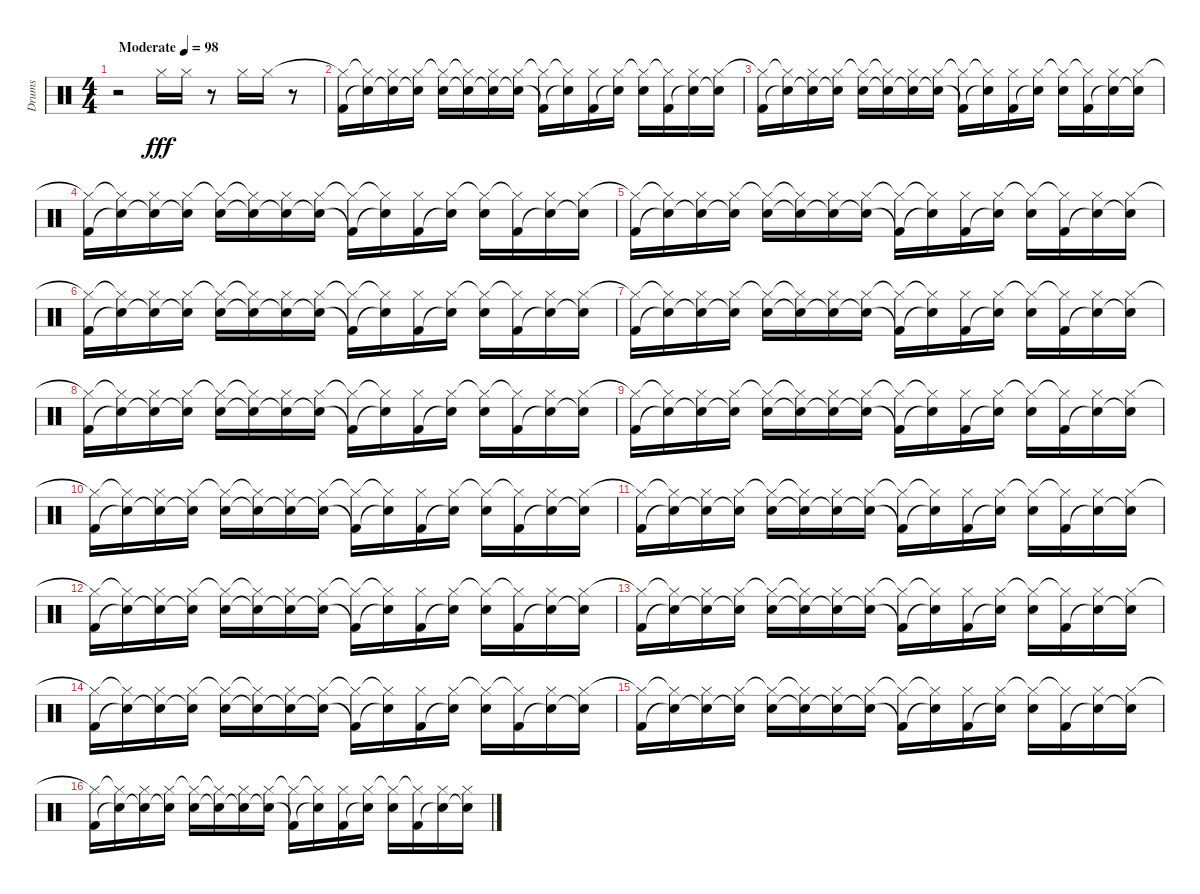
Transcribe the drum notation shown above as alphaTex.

\track ("Drums" "Drums") {instrument percussion}
\staff {score}
\articulation defaults
\ts (4 4)
\tempo (98 "Moderate")
\clef neutral
\ks c
r.2{dy fff} "Hi-Hat (closed)".16 "Hi-Hat (closed)".16 r.8 "Hi-Hat (closed)".16 "Hi-Hat (closed)".16 r.8 |
("Hi-Hat (closed)"{t} "Kick (hit) 2").16 ("Hi-Hat (closed)"{t} "Snare (hit)"{t}).16 ("Hi-Hat (closed)" "Snare (hit)"{t}).16 ("Hi-Hat (closed)" "Snare (hit)"{t}).16 ("Hi-Hat (closed)"{t} "Electric Snare (hit)").16 ("Hi-Hat (closed)"{t} "Snare (hit)"{t}).16 ("Hi-Hat (closed)" "Snare (hit)"{t}).16 ("Hi-Hat (closed)" "Snare (hit)"{t}).16 ("Hi-Hat (closed)"{t} "Kick (hit) 2"{t}).16 ("Hi-Hat (closed)"{t} "Snare (hit)"{t}).16 ("Hi-Hat (closed)" "Kick (hit) 2").16 ("Hi-Hat (closed)" "Electric Snare (hit)"{t}).16 ("Hi-Hat (closed)"{t} "Electric Snare (hit)").16 ("Hi-Hat (closed)"{t} "Kick (hit) 2").16 ("Hi-Hat (closed)" "Electric Snare (hit)"{t}).16 ("Hi-Hat (closed)" "Snare (hit)"{t}).16 |
("Hi-Hat (closed)"{t} "Kick (hit) 2").16 ("Hi-Hat (closed)"{t} "Snare (hit)"{t}).16 ("Hi-Hat (closed)" "Snare (hit)"{t}).16 ("Hi-Hat (closed)" "Snare (hit)"{t}).16 ("Hi-Hat (closed)"{t} "Electric Snare (hit)").16 ("Hi-Hat (closed)"{t} "Snare (hit)"{t}).16 ("Hi-Hat (closed)" "Snare (hit)"{t}).16 ("Hi-Hat (closed)" "Snare (hit)"{t}).16 ("Hi-Hat (closed)"{t} "Kick (hit) 2"{t}).16 ("Hi-Hat (closed)"{t} "Snare (hit)"{t}).16 ("Hi-Hat (closed)" "Kick (hit) 2").16 ("Hi-Hat (closed)" "Electric Snare (hit)"{t}).16 ("Hi-Hat (closed)"{t} "Electric Snare (hit)").16 ("Hi-Hat (closed)"{t} "Kick (hit) 2").16 ("Hi-Hat (closed)" "Electric Snare (hit)"{t}).16 ("Hi-Hat (closed)" "Snare (hit)"{t}).16 |
("Hi-Hat (closed)"{t} "Kick (hit) 2").16 ("Hi-Hat (closed)"{t} "Snare (hit)"{t}).16 ("Hi-Hat (closed)" "Snare (hit)"{t}).16 ("Hi-Hat (closed)" "Snare (hit)"{t}).16 ("Hi-Hat (closed)"{t} "Electric Snare (hit)").16 ("Hi-Hat (closed)"{t} "Snare (hit)"{t}).16 ("Hi-Hat (closed)" "Snare (hit)"{t}).16 ("Hi-Hat (closed)" "Snare (hit)"{t}).16 ("Hi-Hat (closed)"{t} "Kick (hit) 2"{t}).16 ("Hi-Hat (closed)"{t} "Snare (hit)"{t}).16 ("Hi-Hat (closed)" "Kick (hit) 2").16 ("Hi-Hat (closed)" "Electric Snare (hit)"{t}).16 ("Hi-Hat (closed)"{t} "Electric Snare (hit)").16 ("Hi-Hat (closed)"{t} "Kick (hit) 2").16 ("Hi-Hat (closed)" "Electric Snare (hit)"{t}).16 ("Hi-Hat (closed)" "Snare (hit)"{t}).16 |
("Hi-Hat (closed)"{t} "Kick (hit) 2").16 ("Hi-Hat (closed)"{t} "Snare (hit)"{t}).16 ("Hi-Hat (closed)" "Snare (hit)"{t}).16 ("Hi-Hat (closed)" "Snare (hit)"{t}).16 ("Hi-Hat (closed)"{t} "Electric Snare (hit)").16 ("Hi-Hat (closed)"{t} "Snare (hit)"{t}).16 ("Hi-Hat (closed)" "Snare (hit)"{t}).16 ("Hi-Hat (closed)" "Snare (hit)"{t}).16 ("Hi-Hat (closed)"{t} "Kick (hit) 2"{t}).16 ("Hi-Hat (closed)"{t} "Snare (hit)"{t}).16 ("Hi-Hat (closed)" "Kick (hit) 2").16 ("Hi-Hat (closed)" "Electric Snare (hit)"{t}).16 ("Hi-Hat (closed)"{t} "Electric Snare (hit)").16 ("Hi-Hat (closed)"{t} "Kick (hit) 2").16 ("Hi-Hat (closed)" "Electric Snare (hit)"{t}).16 ("Hi-Hat (closed)" "Snare (hit)"{t}).16 |
("Hi-Hat (closed)"{t} "Kick (hit) 2").16 ("Hi-Hat (closed)"{t} "Snare (hit)"{t}).16 ("Hi-Hat (closed)" "Snare (hit)"{t}).16 ("Hi-Hat (closed)" "Snare (hit)"{t}).16 ("Hi-Hat (closed)"{t} "Electric Snare (hit)").16 ("Hi-Hat (closed)"{t} "Snare (hit)"{t}).16 ("Hi-Hat (closed)" "Snare (hit)"{t}).16 ("Hi-Hat (closed)" "Snare (hit)"{t}).16 ("Hi-Hat (closed)"{t} "Kick (hit) 2"{t}).16 ("Hi-Hat (closed)"{t} "Snare (hit)"{t}).16 ("Hi-Hat (closed)" "Kick (hit) 2").16 ("Hi-Hat (closed)" "Electric Snare (hit)"{t}).16 ("Hi-Hat (closed)"{t} "Electric Snare (hit)").16 ("Hi-Hat (closed)"{t} "Kick (hit) 2").16 ("Hi-Hat (closed)" "Electric Snare (hit)"{t}).16 ("Hi-Hat (closed)" "Snare (hit)"{t}).16 |
("Hi-Hat (closed)"{t} "Kick (hit) 2").16 ("Hi-Hat (closed)"{t} "Snare (hit)"{t}).16 ("Hi-Hat (closed)" "Snare (hit)"{t}).16 ("Hi-Hat (closed)" "Snare (hit)"{t}).16 ("Hi-Hat (closed)"{t} "Electric Snare (hit)").16 ("Hi-Hat (closed)"{t} "Snare (hit)"{t}).16 ("Hi-Hat (closed)" "Snare (hit)"{t}).16 ("Hi-Hat (closed)" "Snare (hit)"{t}).16 ("Hi-Hat (closed)"{t} "Kick (hit) 2"{t}).16 ("Hi-Hat (closed)"{t} "Snare (hit)"{t}).16 ("Hi-Hat (closed)" "Kick (hit) 2").16 ("Hi-Hat (closed)" "Electric Snare (hit)"{t}).16 ("Hi-Hat (closed)"{t} "Electric Snare (hit)").16 ("Hi-Hat (closed)"{t} "Kick (hit) 2").16 ("Hi-Hat (closed)" "Electric Snare (hit)"{t}).16 ("Hi-Hat (closed)" "Snare (hit)"{t}).16 |
("Hi-Hat (closed)"{t} "Kick (hit) 2").16 ("Hi-Hat (closed)"{t} "Snare (hit)"{t}).16 ("Hi-Hat (closed)" "Snare (hit)"{t}).16 ("Hi-Hat (closed)" "Snare (hit)"{t}).16 ("Hi-Hat (closed)"{t} "Electric Snare (hit)").16 ("Hi-Hat (closed)"{t} "Snare (hit)"{t}).16 ("Hi-Hat (closed)" "Snare (hit)"{t}).16 ("Hi-Hat (closed)" "Snare (hit)"{t}).16 ("Hi-Hat (closed)"{t} "Kick (hit) 2"{t}).16 ("Hi-Hat (closed)"{t} "Snare (hit)"{t}).16 ("Hi-Hat (closed)" "Kick (hit) 2").16 ("Hi-Hat (closed)" "Electric Snare (hit)"{t}).16 ("Hi-Hat (closed)"{t} "Electric Snare (hit)").16 ("Hi-Hat (closed)"{t} "Kick (hit) 2").16 ("Hi-Hat (closed)" "Electric Snare (hit)"{t}).16 ("Hi-Hat (closed)" "Snare (hit)"{t}).16 |
("Hi-Hat (closed)"{t} "Kick (hit) 2").16 ("Hi-Hat (closed)"{t} "Snare (hit)"{t}).16 ("Hi-Hat (closed)" "Snare (hit)"{t}).16 ("Hi-Hat (closed)" "Snare (hit)"{t}).16 ("Hi-Hat (closed)"{t} "Electric Snare (hit)").16 ("Hi-Hat (closed)"{t} "Snare (hit)"{t}).16 ("Hi-Hat (closed)" "Snare (hit)"{t}).16 ("Hi-Hat (closed)" "Snare (hit)"{t}).16 ("Hi-Hat (closed)"{t} "Kick (hit) 2"{t}).16 ("Hi-Hat (closed)"{t} "Snare (hit)"{t}).16 ("Hi-Hat (closed)" "Kick (hit) 2").16 ("Hi-Hat (closed)" "Electric Snare (hit)"{t}).16 ("Hi-Hat (closed)"{t} "Electric Snare (hit)").16 ("Hi-Hat (closed)"{t} "Kick (hit) 2").16 ("Hi-Hat (closed)" "Electric Snare (hit)"{t}).16 ("Hi-Hat (closed)" "Snare (hit)"{t}).16 |
("Hi-Hat (closed)"{t} "Kick (hit) 2").16 ("Hi-Hat (closed)"{t} "Snare (hit)"{t}).16 ("Hi-Hat (closed)" "Snare (hit)"{t}).16 ("Hi-Hat (closed)" "Snare (hit)"{t}).16 ("Hi-Hat (closed)"{t} "Electric Snare (hit)").16 ("Hi-Hat (closed)"{t} "Snare (hit)"{t}).16 ("Hi-Hat (closed)" "Snare (hit)"{t}).16 ("Hi-Hat (closed)" "Snare (hit)"{t}).16 ("Hi-Hat (closed)"{t} "Kick (hit) 2"{t}).16 ("Hi-Hat (closed)"{t} "Snare (hit)"{t}).16 ("Hi-Hat (closed)" "Kick (hit) 2").16 ("Hi-Hat (closed)" "Electric Snare (hit)"{t}).16 ("Hi-Hat (closed)"{t} "Electric Snare (hit)").16 ("Hi-Hat (closed)"{t} "Kick (hit) 2").16 ("Hi-Hat (closed)" "Electric Snare (hit)"{t}).16 ("Hi-Hat (closed)" "Snare (hit)"{t}).16 |
("Hi-Hat (closed)"{t} "Kick (hit) 2").16 ("Hi-Hat (closed)"{t} "Snare (hit)"{t}).16 ("Hi-Hat (closed)" "Snare (hit)"{t}).16 ("Hi-Hat (closed)" "Snare (hit)"{t}).16 ("Hi-Hat (closed)"{t} "Electric Snare (hit)").16 ("Hi-Hat (closed)"{t} "Snare (hit)"{t}).16 ("Hi-Hat (closed)" "Snare (hit)"{t}).16 ("Hi-Hat (closed)" "Snare (hit)"{t}).16 ("Hi-Hat (closed)"{t} "Kick (hit) 2"{t}).16 ("Hi-Hat (closed)"{t} "Snare (hit)"{t}).16 ("Hi-Hat (closed)" "Kick (hit) 2").16 ("Hi-Hat (closed)" "Electric Snare (hit)"{t}).16 ("Hi-Hat (closed)"{t} "Electric Snare (hit)").16 ("Hi-Hat (closed)"{t} "Kick (hit) 2").16 ("Hi-Hat (closed)" "Electric Snare (hit)"{t}).16 ("Hi-Hat (closed)" "Snare (hit)"{t}).16 |
("Hi-Hat (closed)"{t} "Kick (hit) 2").16 ("Hi-Hat (closed)"{t} "Snare (hit)"{t}).16 ("Hi-Hat (closed)" "Snare (hit)"{t}).16 ("Hi-Hat (closed)" "Snare (hit)"{t}).16 ("Hi-Hat (closed)"{t} "Electric Snare (hit)").16 ("Hi-Hat (closed)"{t} "Snare (hit)"{t}).16 ("Hi-Hat (closed)" "Snare (hit)"{t}).16 ("Hi-Hat (closed)" "Snare (hit)"{t}).16 ("Hi-Hat (closed)"{t} "Kick (hit) 2"{t}).16 ("Hi-Hat (closed)"{t} "Snare (hit)"{t}).16 ("Hi-Hat (closed)" "Kick (hit) 2").16 ("Hi-Hat (closed)" "Electric Snare (hit)"{t}).16 ("Hi-Hat (closed)"{t} "Electric Snare (hit)").16 ("Hi-Hat (closed)"{t} "Kick (hit) 2").16 ("Hi-Hat (closed)" "Electric Snare (hit)"{t}).16 ("Hi-Hat (closed)" "Snare (hit)"{t}).16 |
("Hi-Hat (closed)"{t} "Kick (hit) 2").16 ("Hi-Hat (closed)"{t} "Snare (hit)"{t}).16 ("Hi-Hat (closed)" "Snare (hit)"{t}).16 ("Hi-Hat (closed)" "Snare (hit)"{t}).16 ("Hi-Hat (closed)"{t} "Electric Snare (hit)").16 ("Hi-Hat (closed)"{t} "Snare (hit)"{t}).16 ("Hi-Hat (closed)" "Snare (hit)"{t}).16 ("Hi-Hat (closed)" "Snare (hit)"{t}).16 ("Hi-Hat (closed)"{t} "Kick (hit) 2"{t}).16 ("Hi-Hat (closed)"{t} "Snare (hit)"{t}).16 ("Hi-Hat (closed)" "Kick (hit) 2").16 ("Hi-Hat (closed)" "Electric Snare (hit)"{t}).16 ("Hi-Hat (closed)"{t} "Electric Snare (hit)").16 ("Hi-Hat (closed)"{t} "Kick (hit) 2").16 ("Hi-Hat (closed)" "Electric Snare (hit)"{t}).16 ("Hi-Hat (closed)" "Snare (hit)"{t}).16 |
("Hi-Hat (closed)"{t} "Kick (hit) 2").16 ("Hi-Hat (closed)"{t} "Snare (hit)"{t}).16 ("Hi-Hat (closed)" "Snare (hit)"{t}).16 ("Hi-Hat (closed)" "Snare (hit)"{t}).16 ("Hi-Hat (closed)"{t} "Electric Snare (hit)").16 ("Hi-Hat (closed)"{t} "Snare (hit)"{t}).16 ("Hi-Hat (closed)" "Snare (hit)"{t}).16 ("Hi-Hat (closed)" "Snare (hit)"{t}).16 ("Hi-Hat (closed)"{t} "Kick (hit) 2"{t}).16 ("Hi-Hat (closed)"{t} "Snare (hit)"{t}).16 ("Hi-Hat (closed)" "Kick (hit) 2").16 ("Hi-Hat (closed)" "Electric Snare (hit)"{t}).16 ("Hi-Hat (closed)"{t} "Electric Snare (hit)").16 ("Hi-Hat (closed)"{t} "Kick (hit) 2").16 ("Hi-Hat (closed)" "Electric Snare (hit)"{t}).16 ("Hi-Hat (closed)" "Snare (hit)"{t}).16 |
("Hi-Hat (closed)"{t} "Kick (hit) 2").16 ("Hi-Hat (closed)"{t} "Snare (hit)"{t}).16 ("Hi-Hat (closed)" "Snare (hit)"{t}).16 ("Hi-Hat (closed)" "Snare (hit)"{t}).16 ("Hi-Hat (closed)"{t} "Electric Snare (hit)").16 ("Hi-Hat (closed)"{t} "Snare (hit)"{t}).16 ("Hi-Hat (closed)" "Snare (hit)"{t}).16 ("Hi-Hat (closed)" "Snare (hit)"{t}).16 ("Hi-Hat (closed)"{t} "Kick (hit) 2"{t}).16 ("Hi-Hat (closed)"{t} "Snare (hit)"{t}).16 ("Hi-Hat (closed)" "Kick (hit) 2").16 ("Hi-Hat (closed)" "Electric Snare (hit)"{t}).16 ("Hi-Hat (closed)"{t} "Electric Snare (hit)").16 ("Hi-Hat (closed)"{t} "Kick (hit) 2").16 ("Hi-Hat (closed)" "Electric Snare (hit)"{t}).16 ("Hi-Hat (closed)" "Snare (hit)"{t}).16 |
("Hi-Hat (closed)"{t} "Kick (hit) 2").16 ("Hi-Hat (closed)"{t} "Snare (hit)"{t}).16 ("Hi-Hat (closed)" "Snare (hit)"{t}).16 ("Hi-Hat (closed)" "Snare (hit)"{t}).16 ("Hi-Hat (closed)"{t} "Electric Snare (hit)").16 ("Hi-Hat (closed)"{t} "Snare (hit)"{t}).16 ("Hi-Hat (closed)" "Snare (hit)"{t}).16 ("Hi-Hat (closed)" "Snare (hit)"{t}).16 ("Hi-Hat (closed)"{t} "Kick (hit) 2"{t}).16 ("Hi-Hat (closed)"{t} "Snare (hit)"{t}).16 ("Hi-Hat (closed)" "Kick (hit) 2").16 ("Hi-Hat (closed)" "Electric Snare (hit)"{t}).16 ("Hi-Hat (closed)"{t} "Electric Snare (hit)").16 ("Hi-Hat (closed)"{t} "Kick (hit) 2").16 ("Hi-Hat (closed)" "Electric Snare (hit)"{t}).16 ("Hi-Hat (closed)" "Snare (hit)"{t}).16
